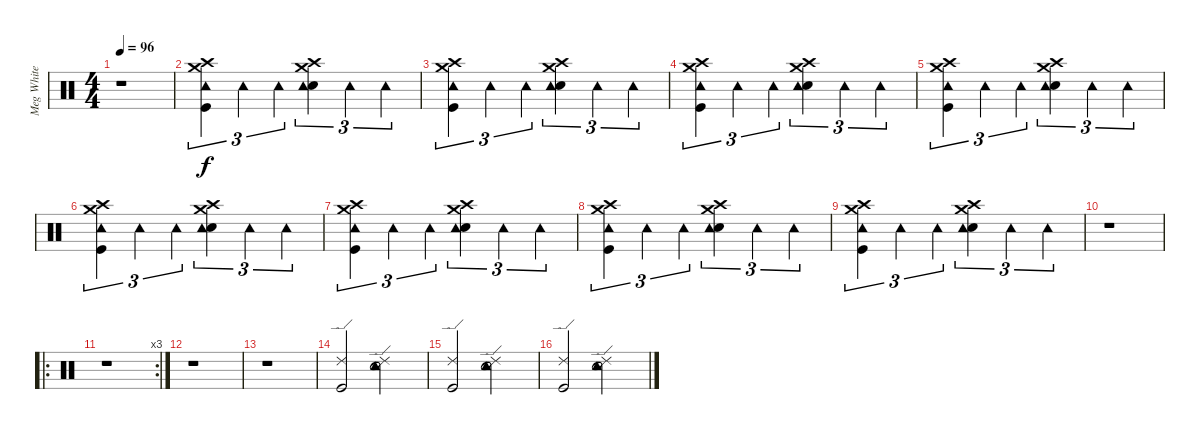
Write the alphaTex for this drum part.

\track ("Meg White" "Meg White") {instrument percussion}
\staff {score}
\articulation defaults
\ts (4 4)
\tempo 96
\clef neutral
\ks c
r.1{dy f} |
("Kick (hit)" "Tambourine (hit)" "Crash medium (hit)" "Crash high (hit)").4{tu (3 2)} "Tambourine (hit)".4{tu (3 2)} "Tambourine (hit)".4{tu (3 2)} ("Electric Snare (hit)" "Tambourine (hit)" "Crash medium (hit)" "Crash high (hit)").4{tu (3 2)} "Tambourine (hit)".4{tu (3 2)} "Tambourine (hit)".4{tu (3 2)} |
("Kick (hit)" "Tambourine (hit)" "Crash medium (hit)" "Crash high (hit)").4{tu (3 2)} "Tambourine (hit)".4{tu (3 2)} "Tambourine (hit)".4{tu (3 2)} ("Electric Snare (hit)" "Tambourine (hit)" "Crash medium (hit)" "Crash high (hit)").4{tu (3 2)} "Tambourine (hit)".4{tu (3 2)} "Tambourine (hit)".4{tu (3 2)} |
("Kick (hit)" "Tambourine (hit)" "Crash medium (hit)" "Crash high (hit)").4{tu (3 2)} "Tambourine (hit)".4{tu (3 2)} "Tambourine (hit)".4{tu (3 2)} ("Electric Snare (hit)" "Tambourine (hit)" "Crash medium (hit)" "Crash high (hit)").4{tu (3 2)} "Tambourine (hit)".4{tu (3 2)} "Tambourine (hit)".4{tu (3 2)} |
("Kick (hit)" "Tambourine (hit)" "Crash medium (hit)" "Crash high (hit)").4{tu (3 2)} "Tambourine (hit)".4{tu (3 2)} "Tambourine (hit)".4{tu (3 2)} ("Electric Snare (hit)" "Tambourine (hit)" "Crash medium (hit)" "Crash high (hit)").4{tu (3 2)} "Tambourine (hit)".4{tu (3 2)} "Tambourine (hit)".4{tu (3 2)} |
("Kick (hit)" "Tambourine (hit)" "Crash medium (hit)" "Crash high (hit)").4{tu (3 2)} "Tambourine (hit)".4{tu (3 2)} "Tambourine (hit)".4{tu (3 2)} ("Electric Snare (hit)" "Tambourine (hit)" "Crash medium (hit)" "Crash high (hit)").4{tu (3 2)} "Tambourine (hit)".4{tu (3 2)} "Tambourine (hit)".4{tu (3 2)} |
("Kick (hit)" "Tambourine (hit)" "Crash medium (hit)" "Crash high (hit)").4{tu (3 2)} "Tambourine (hit)".4{tu (3 2)} "Tambourine (hit)".4{tu (3 2)} ("Electric Snare (hit)" "Tambourine (hit)" "Crash medium (hit)" "Crash high (hit)").4{tu (3 2)} "Tambourine (hit)".4{tu (3 2)} "Tambourine (hit)".4{tu (3 2)} |
("Kick (hit)" "Tambourine (hit)" "Crash medium (hit)" "Crash high (hit)").4{tu (3 2)} "Tambourine (hit)".4{tu (3 2)} "Tambourine (hit)".4{tu (3 2)} ("Electric Snare (hit)" "Tambourine (hit)" "Crash medium (hit)" "Crash high (hit)").4{tu (3 2)} "Tambourine (hit)".4{tu (3 2)} "Tambourine (hit)".4{tu (3 2)} |
("Kick (hit)" "Tambourine (hit)" "Crash medium (hit)" "Crash high (hit)").4{tu (3 2)} "Tambourine (hit)".4{tu (3 2)} "Tambourine (hit)".4{tu (3 2)} ("Electric Snare (hit)" "Tambourine (hit)" "Crash medium (hit)" "Crash high (hit)").4{tu (3 2)} "Tambourine (hit)".4{tu (3 2)} "Tambourine (hit)".4{tu (3 2)} |
r.1 |
\ro
\rc 3
r.1 |
r.1 |
r.1 |
("Kick (hit)" "Ride (edge) 2").2 ("Electric Snare (hit)" "Tambourine (hit)" "Ride (edge) 2").2 |
("Kick (hit)" "Ride (edge) 2").2 ("Electric Snare (hit)" "Tambourine (hit)" "Ride (edge) 2").2 |
("Kick (hit)" "Ride (edge) 2").2 ("Electric Snare (hit)" "Tambourine (hit)" "Ride (edge) 2").2
